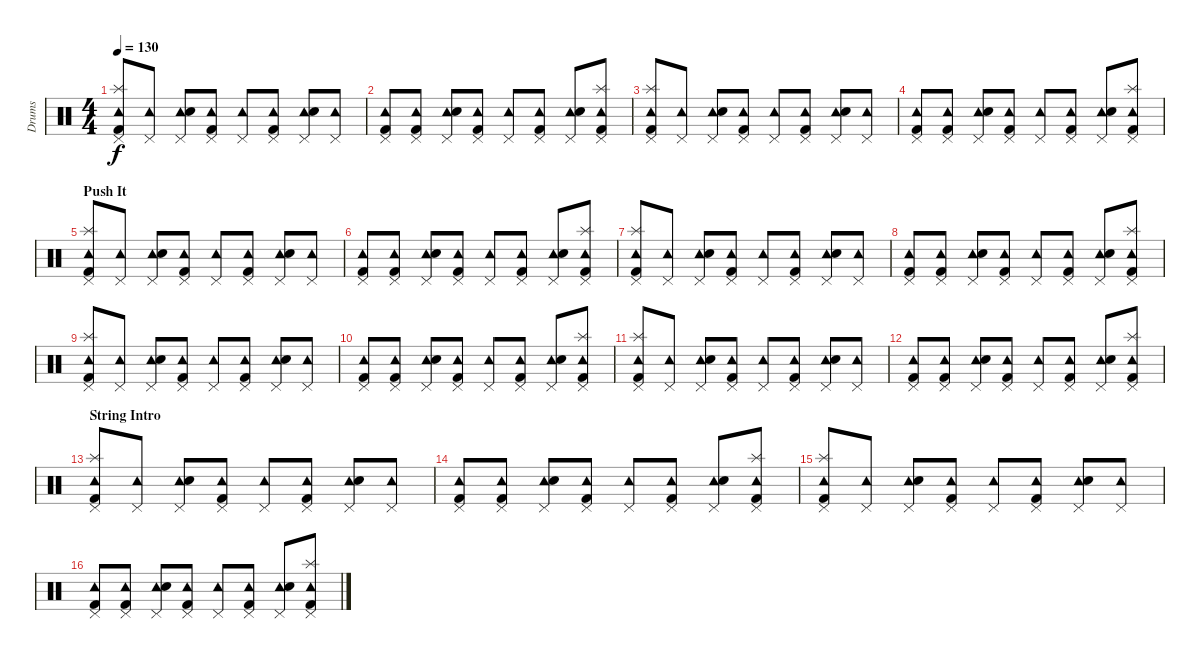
\track ("Drums" "Drums") {instrument percussion}
\staff {score}
\articulation defaults
\ts (4 4)
\tempo 130
\clef neutral
\ks c
("Tambourine (hit)" "Pedal Hi-Hat (hit)" "Splash (hit)" "Kick (hit) 2").8{dy f} ("Tambourine (hit)" "Pedal Hi-Hat (hit)").8 ("Tambourine (hit)" "Pedal Hi-Hat (hit)" "Electric Snare (hit)").8 ("Tambourine (hit)" "Pedal Hi-Hat (hit)" "Kick (hit) 2").8 ("Tambourine (hit)" "Pedal Hi-Hat (hit)").8 ("Tambourine (hit)" "Pedal Hi-Hat (hit)" "Kick (hit) 2").8 ("Tambourine (hit)" "Pedal Hi-Hat (hit)" "Electric Snare (hit)").8 ("Tambourine (hit)" "Pedal Hi-Hat (hit)").8 |
("Tambourine (hit)" "Pedal Hi-Hat (hit)" "Kick (hit) 2").8 ("Tambourine (hit)" "Pedal Hi-Hat (hit)" "Kick (hit) 2").8 ("Tambourine (hit)" "Pedal Hi-Hat (hit)" "Electric Snare (hit)").8 ("Tambourine (hit)" "Pedal Hi-Hat (hit)" "Kick (hit) 2").8 ("Tambourine (hit)" "Pedal Hi-Hat (hit)").8 ("Tambourine (hit)" "Pedal Hi-Hat (hit)" "Kick (hit) 2").8 ("Tambourine (hit)" "Pedal Hi-Hat (hit)" "Electric Snare (hit)").8 ("Tambourine (hit)" "Pedal Hi-Hat (hit)" "Splash (hit)" "Kick (hit) 2").8 |
("Tambourine (hit)" "Pedal Hi-Hat (hit)" "Splash (hit)" "Kick (hit) 2").8 ("Tambourine (hit)" "Pedal Hi-Hat (hit)").8 ("Tambourine (hit)" "Pedal Hi-Hat (hit)" "Electric Snare (hit)").8 ("Tambourine (hit)" "Pedal Hi-Hat (hit)" "Kick (hit) 2").8 ("Tambourine (hit)" "Pedal Hi-Hat (hit)").8 ("Tambourine (hit)" "Pedal Hi-Hat (hit)" "Kick (hit) 2").8 ("Tambourine (hit)" "Pedal Hi-Hat (hit)" "Electric Snare (hit)").8 ("Tambourine (hit)" "Pedal Hi-Hat (hit)").8 |
("Tambourine (hit)" "Pedal Hi-Hat (hit)" "Kick (hit) 2").8 ("Tambourine (hit)" "Pedal Hi-Hat (hit)" "Kick (hit) 2").8 ("Tambourine (hit)" "Pedal Hi-Hat (hit)" "Electric Snare (hit)").8 ("Tambourine (hit)" "Pedal Hi-Hat (hit)" "Kick (hit) 2").8 ("Tambourine (hit)" "Pedal Hi-Hat (hit)").8 ("Tambourine (hit)" "Pedal Hi-Hat (hit)" "Kick (hit) 2").8 ("Tambourine (hit)" "Pedal Hi-Hat (hit)" "Electric Snare (hit)").8 ("Tambourine (hit)" "Pedal Hi-Hat (hit)" "Splash (hit)" "Kick (hit) 2").8 |
\section ("" "Push It")
("Tambourine (hit)" "Pedal Hi-Hat (hit)" "Splash (hit)" "Kick (hit) 2").8 ("Tambourine (hit)" "Pedal Hi-Hat (hit)").8 ("Tambourine (hit)" "Pedal Hi-Hat (hit)" "Electric Snare (hit)").8 ("Tambourine (hit)" "Pedal Hi-Hat (hit)" "Kick (hit) 2").8 ("Tambourine (hit)" "Pedal Hi-Hat (hit)").8 ("Tambourine (hit)" "Pedal Hi-Hat (hit)" "Kick (hit) 2").8 ("Tambourine (hit)" "Pedal Hi-Hat (hit)" "Electric Snare (hit)").8 ("Tambourine (hit)" "Pedal Hi-Hat (hit)").8 |
("Tambourine (hit)" "Pedal Hi-Hat (hit)" "Kick (hit) 2").8 ("Tambourine (hit)" "Pedal Hi-Hat (hit)" "Kick (hit) 2").8 ("Tambourine (hit)" "Pedal Hi-Hat (hit)" "Electric Snare (hit)").8 ("Tambourine (hit)" "Pedal Hi-Hat (hit)" "Kick (hit) 2").8 ("Tambourine (hit)" "Pedal Hi-Hat (hit)").8 ("Tambourine (hit)" "Pedal Hi-Hat (hit)" "Kick (hit) 2").8 ("Tambourine (hit)" "Pedal Hi-Hat (hit)" "Electric Snare (hit)").8 ("Tambourine (hit)" "Pedal Hi-Hat (hit)" "Splash (hit)" "Kick (hit) 2").8 |
("Tambourine (hit)" "Pedal Hi-Hat (hit)" "Splash (hit)" "Kick (hit) 2").8 ("Tambourine (hit)" "Pedal Hi-Hat (hit)").8 ("Tambourine (hit)" "Pedal Hi-Hat (hit)" "Electric Snare (hit)").8 ("Tambourine (hit)" "Pedal Hi-Hat (hit)" "Kick (hit) 2").8 ("Tambourine (hit)" "Pedal Hi-Hat (hit)").8 ("Tambourine (hit)" "Pedal Hi-Hat (hit)" "Kick (hit) 2").8 ("Tambourine (hit)" "Pedal Hi-Hat (hit)" "Electric Snare (hit)").8 ("Tambourine (hit)" "Pedal Hi-Hat (hit)").8 |
("Tambourine (hit)" "Pedal Hi-Hat (hit)" "Kick (hit) 2").8 ("Tambourine (hit)" "Pedal Hi-Hat (hit)" "Kick (hit) 2").8 ("Tambourine (hit)" "Pedal Hi-Hat (hit)" "Electric Snare (hit)").8 ("Tambourine (hit)" "Pedal Hi-Hat (hit)" "Kick (hit) 2").8 ("Tambourine (hit)" "Pedal Hi-Hat (hit)").8 ("Tambourine (hit)" "Pedal Hi-Hat (hit)" "Kick (hit) 2").8 ("Tambourine (hit)" "Pedal Hi-Hat (hit)" "Electric Snare (hit)").8 ("Tambourine (hit)" "Pedal Hi-Hat (hit)" "Splash (hit)" "Kick (hit) 2").8 |
("Tambourine (hit)" "Pedal Hi-Hat (hit)" "Splash (hit)" "Kick (hit) 2").8 ("Tambourine (hit)" "Pedal Hi-Hat (hit)").8 ("Tambourine (hit)" "Pedal Hi-Hat (hit)" "Electric Snare (hit)").8 ("Tambourine (hit)" "Pedal Hi-Hat (hit)" "Kick (hit) 2").8 ("Tambourine (hit)" "Pedal Hi-Hat (hit)").8 ("Tambourine (hit)" "Pedal Hi-Hat (hit)" "Kick (hit) 2").8 ("Tambourine (hit)" "Pedal Hi-Hat (hit)" "Electric Snare (hit)").8 ("Tambourine (hit)" "Pedal Hi-Hat (hit)").8 |
("Tambourine (hit)" "Pedal Hi-Hat (hit)" "Kick (hit) 2").8 ("Tambourine (hit)" "Pedal Hi-Hat (hit)" "Kick (hit) 2").8 ("Tambourine (hit)" "Pedal Hi-Hat (hit)" "Electric Snare (hit)").8 ("Tambourine (hit)" "Pedal Hi-Hat (hit)" "Kick (hit) 2").8 ("Tambourine (hit)" "Pedal Hi-Hat (hit)").8 ("Tambourine (hit)" "Pedal Hi-Hat (hit)" "Kick (hit) 2").8 ("Tambourine (hit)" "Pedal Hi-Hat (hit)" "Electric Snare (hit)").8 ("Tambourine (hit)" "Pedal Hi-Hat (hit)" "Splash (hit)" "Kick (hit) 2").8 |
("Tambourine (hit)" "Pedal Hi-Hat (hit)" "Splash (hit)" "Kick (hit) 2").8 ("Tambourine (hit)" "Pedal Hi-Hat (hit)").8 ("Tambourine (hit)" "Pedal Hi-Hat (hit)" "Electric Snare (hit)").8 ("Tambourine (hit)" "Pedal Hi-Hat (hit)" "Kick (hit) 2").8 ("Tambourine (hit)" "Pedal Hi-Hat (hit)").8 ("Tambourine (hit)" "Pedal Hi-Hat (hit)" "Kick (hit) 2").8 ("Tambourine (hit)" "Pedal Hi-Hat (hit)" "Electric Snare (hit)").8 ("Tambourine (hit)" "Pedal Hi-Hat (hit)").8 |
("Tambourine (hit)" "Pedal Hi-Hat (hit)" "Kick (hit) 2").8 ("Tambourine (hit)" "Pedal Hi-Hat (hit)" "Kick (hit) 2").8 ("Tambourine (hit)" "Pedal Hi-Hat (hit)" "Electric Snare (hit)").8 ("Tambourine (hit)" "Pedal Hi-Hat (hit)" "Kick (hit) 2").8 ("Tambourine (hit)" "Pedal Hi-Hat (hit)").8 ("Tambourine (hit)" "Pedal Hi-Hat (hit)" "Kick (hit) 2").8 ("Tambourine (hit)" "Pedal Hi-Hat (hit)" "Electric Snare (hit)").8 ("Tambourine (hit)" "Pedal Hi-Hat (hit)" "Splash (hit)" "Kick (hit) 2").8 |
\section ("" "String Intro")
("Tambourine (hit)" "Pedal Hi-Hat (hit)" "Splash (hit)" "Kick (hit) 2").8 ("Tambourine (hit)" "Pedal Hi-Hat (hit)").8 ("Tambourine (hit)" "Pedal Hi-Hat (hit)" "Electric Snare (hit)").8 ("Tambourine (hit)" "Pedal Hi-Hat (hit)" "Kick (hit) 2").8 ("Tambourine (hit)" "Pedal Hi-Hat (hit)").8 ("Tambourine (hit)" "Pedal Hi-Hat (hit)" "Kick (hit) 2").8 ("Tambourine (hit)" "Pedal Hi-Hat (hit)" "Electric Snare (hit)").8 ("Tambourine (hit)" "Pedal Hi-Hat (hit)").8 |
("Tambourine (hit)" "Pedal Hi-Hat (hit)" "Kick (hit) 2").8 ("Tambourine (hit)" "Pedal Hi-Hat (hit)" "Kick (hit) 2").8 ("Tambourine (hit)" "Pedal Hi-Hat (hit)" "Electric Snare (hit)").8 ("Tambourine (hit)" "Pedal Hi-Hat (hit)" "Kick (hit) 2").8 ("Tambourine (hit)" "Pedal Hi-Hat (hit)").8 ("Tambourine (hit)" "Pedal Hi-Hat (hit)" "Kick (hit) 2").8 ("Tambourine (hit)" "Pedal Hi-Hat (hit)" "Electric Snare (hit)").8 ("Tambourine (hit)" "Pedal Hi-Hat (hit)" "Splash (hit)" "Kick (hit) 2").8 |
("Tambourine (hit)" "Pedal Hi-Hat (hit)" "Splash (hit)" "Kick (hit) 2").8 ("Tambourine (hit)" "Pedal Hi-Hat (hit)").8 ("Tambourine (hit)" "Pedal Hi-Hat (hit)" "Electric Snare (hit)").8 ("Tambourine (hit)" "Pedal Hi-Hat (hit)" "Kick (hit) 2").8 ("Tambourine (hit)" "Pedal Hi-Hat (hit)").8 ("Tambourine (hit)" "Pedal Hi-Hat (hit)" "Kick (hit) 2").8 ("Tambourine (hit)" "Pedal Hi-Hat (hit)" "Electric Snare (hit)").8 ("Tambourine (hit)" "Pedal Hi-Hat (hit)").8 |
("Tambourine (hit)" "Pedal Hi-Hat (hit)" "Kick (hit) 2").8 ("Tambourine (hit)" "Pedal Hi-Hat (hit)" "Kick (hit) 2").8 ("Tambourine (hit)" "Pedal Hi-Hat (hit)" "Electric Snare (hit)").8 ("Tambourine (hit)" "Pedal Hi-Hat (hit)" "Kick (hit) 2").8 ("Tambourine (hit)" "Pedal Hi-Hat (hit)").8 ("Tambourine (hit)" "Pedal Hi-Hat (hit)" "Kick (hit) 2").8 ("Tambourine (hit)" "Pedal Hi-Hat (hit)" "Electric Snare (hit)").8 ("Tambourine (hit)" "Pedal Hi-Hat (hit)" "Splash (hit)" "Kick (hit) 2").8
